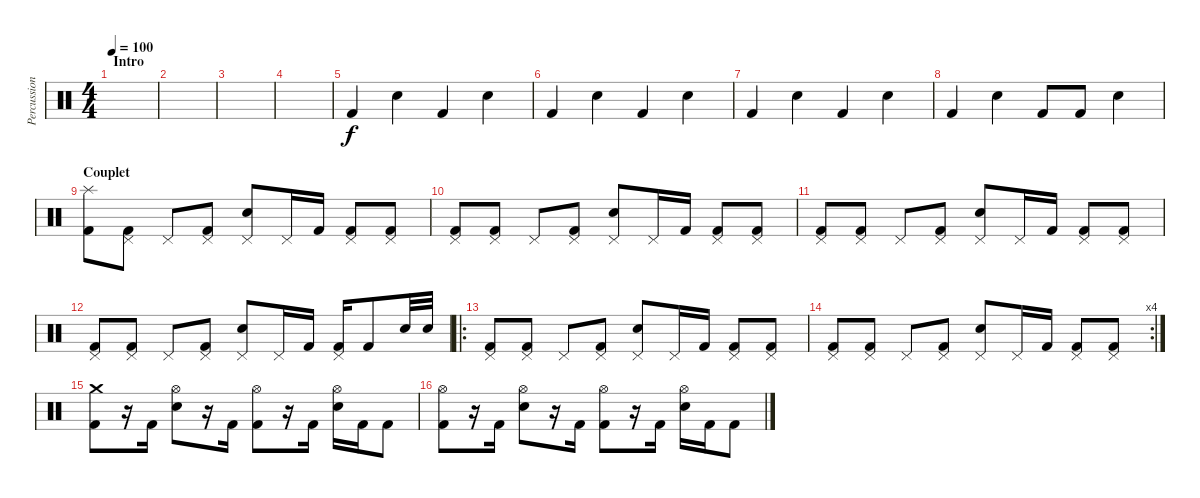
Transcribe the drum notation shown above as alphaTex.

\track ("Percussions" "Percussion") {instrument percussion}
\staff {score}
\articulation defaults
\ts (4 4)
\section ("" "Intro")
\tempo 100
\clef neutral
\ks c
|
|
|
|
"Kick (hit) 2".4 "Snare (hit) 2".4 "Kick (hit) 2".4 "Snare (hit) 2".4 |
"Kick (hit) 2".4 "Snare (hit) 2".4 "Kick (hit) 2".4 "Snare (hit) 2".4 |
"Kick (hit) 2".4 "Snare (hit) 2".4 "Kick (hit) 2".4 "Snare (hit) 2".4 |
"Kick (hit) 2".4 "Snare (hit) 2".4 "Kick (hit) 2".8 "Kick (hit) 2".8 "Snare (hit) 2".4 |
\section ("" "Couplet")
("Splash (hit)" "Kick (hit) 2").8{dy f} ("Pedal Hi-Hat (hit)" "Kick (hit) 2").8 "Pedal Hi-Hat (hit)".8 ("Pedal Hi-Hat (hit)" "Kick (hit) 2").8 ("Pedal Hi-Hat (hit)" "Electric Snare (hit)").8 "Pedal Hi-Hat (hit)".16 "Kick (hit) 2".16 ("Pedal Hi-Hat (hit)" "Kick (hit) 2").8 ("Pedal Hi-Hat (hit)" "Kick (hit) 2").8 |
("Pedal Hi-Hat (hit)" "Kick (hit) 2").8 ("Pedal Hi-Hat (hit)" "Kick (hit) 2").8 "Pedal Hi-Hat (hit)".8 ("Pedal Hi-Hat (hit)" "Kick (hit) 2").8 ("Pedal Hi-Hat (hit)" "Electric Snare (hit)").8 "Pedal Hi-Hat (hit)".16 "Kick (hit) 2".16 ("Pedal Hi-Hat (hit)" "Kick (hit) 2").8 ("Pedal Hi-Hat (hit)" "Kick (hit) 2").8 |
("Pedal Hi-Hat (hit)" "Kick (hit) 2").8 ("Pedal Hi-Hat (hit)" "Kick (hit) 2").8 "Pedal Hi-Hat (hit)".8 ("Pedal Hi-Hat (hit)" "Kick (hit) 2").8 ("Pedal Hi-Hat (hit)" "Electric Snare (hit)").8 "Pedal Hi-Hat (hit)".16 "Kick (hit) 2".16 ("Pedal Hi-Hat (hit)" "Kick (hit) 2").8 ("Pedal Hi-Hat (hit)" "Kick (hit) 2").8 |
("Pedal Hi-Hat (hit)" "Kick (hit) 2").8 ("Pedal Hi-Hat (hit)" "Kick (hit) 2").8 "Pedal Hi-Hat (hit)".8 ("Pedal Hi-Hat (hit)" "Kick (hit) 2").8 ("Pedal Hi-Hat (hit)" "Electric Snare (hit)").8 "Pedal Hi-Hat (hit)".16 "Kick (hit) 2".16 ("Pedal Hi-Hat (hit)" "Kick (hit) 2").16 "Kick (hit) 2".8 "Electric Snare (hit)".32 "Electric Snare (hit)".32 |
\ro
("Pedal Hi-Hat (hit)" "Kick (hit) 2").8 ("Pedal Hi-Hat (hit)" "Kick (hit) 2").8 "Pedal Hi-Hat (hit)".8 ("Pedal Hi-Hat (hit)" "Kick (hit) 2").8 ("Pedal Hi-Hat (hit)" "Electric Snare (hit)").8 "Pedal Hi-Hat (hit)".16 "Kick (hit) 2".16 ("Pedal Hi-Hat (hit)" "Kick (hit) 2").8 ("Pedal Hi-Hat (hit)" "Kick (hit) 2").8 |
\rc 4
("Pedal Hi-Hat (hit)" "Kick (hit) 2").8 ("Pedal Hi-Hat (hit)" "Kick (hit) 2").8 "Pedal Hi-Hat (hit)".8 ("Pedal Hi-Hat (hit)" "Kick (hit) 2").8 ("Pedal Hi-Hat (hit)" "Electric Snare (hit)").8 "Pedal Hi-Hat (hit)".16 "Kick (hit) 2".16 ("Pedal Hi-Hat (hit)" "Kick (hit) 2").8 ("Pedal Hi-Hat (hit)" "Kick (hit) 2").8 |
("Crash medium (hit)" "Kick (hit) 2").8 r.16 "Kick (hit) 2".16 ("Hi-Hat (open)" "Electric Snare (hit)").8 r.16 "Kick (hit) 2".16 ("Hi-Hat (open)" "Kick (hit) 2").8 r.16 "Kick (hit) 2".16 ("Hi-Hat (open)" "Electric Snare (hit)").16 "Kick (hit) 2".16 "Kick (hit) 2".8 |
("Hi-Hat (open)" "Kick (hit) 2").8 r.16 "Kick (hit) 2".16 ("Hi-Hat (open)" "Electric Snare (hit)").8 r.16 "Kick (hit) 2".16 ("Hi-Hat (open)" "Kick (hit) 2").8 r.16 "Kick (hit) 2".16 ("Hi-Hat (open)" "Electric Snare (hit)").16 "Kick (hit) 2".16 "Kick (hit) 2".8
